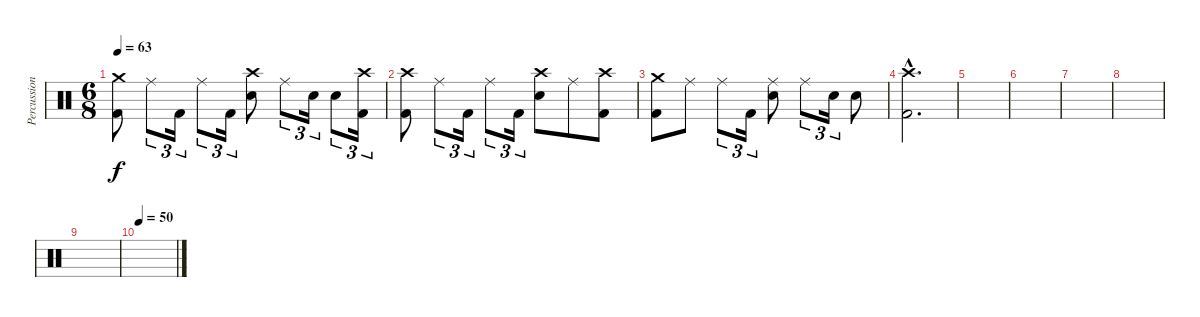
\track ("Percussion" "Percussion") {instrument percussion}
\staff {score}
\articulation defaults
\ts (6 8)
\tempo 63
\clef neutral
\ks c
("Crash medium (hit)" "Kick (hit) 2").8{dy f} "Ride (middle)".8{tu (3 2)} "Kick (hit) 2".16{tu (3 2)} "Ride (middle)".8{tu (3 2)} "Kick (hit) 2".16{tu (3 2)} ("Crash high (hit)" "Electric Snare (hit)").8 "Ride (middle)".8{tu (3 2)} "Electric Snare (hit)".16{tu (3 2)} "Electric Snare (hit)".8{tu (3 2)} ("Crash high (hit)" "Kick (hit) 2").16{tu (3 2)} |
("Crash high (hit)" "Kick (hit) 2").8 "Ride (middle)".8{tu (3 2)} "Kick (hit) 2".16{tu (3 2)} "Ride (middle)".8{tu (3 2)} "Kick (hit) 2".16{tu (3 2)} ("Crash high (hit)" "Electric Snare (hit)").8 "Ride (middle)".8 ("Crash high (hit)" "Kick (hit) 2").8 |
("Crash medium (hit)" "Kick (hit) 2").8 "Ride (middle)".8 "Ride (middle)".8{tu (3 2)} "Kick (hit) 2".16{tu (3 2)} ("Ride (middle)" "Electric Snare (hit)").8 "Ride (middle)".8{tu (3 2)} "Electric Snare (hit)".16{tu (3 2)} "Electric Snare (hit)".8 |
("Crash high (hit)"{hac} "Kick (hit) 2"{hac}).2{d} |
|
|
|
|
|
\tempo 50
